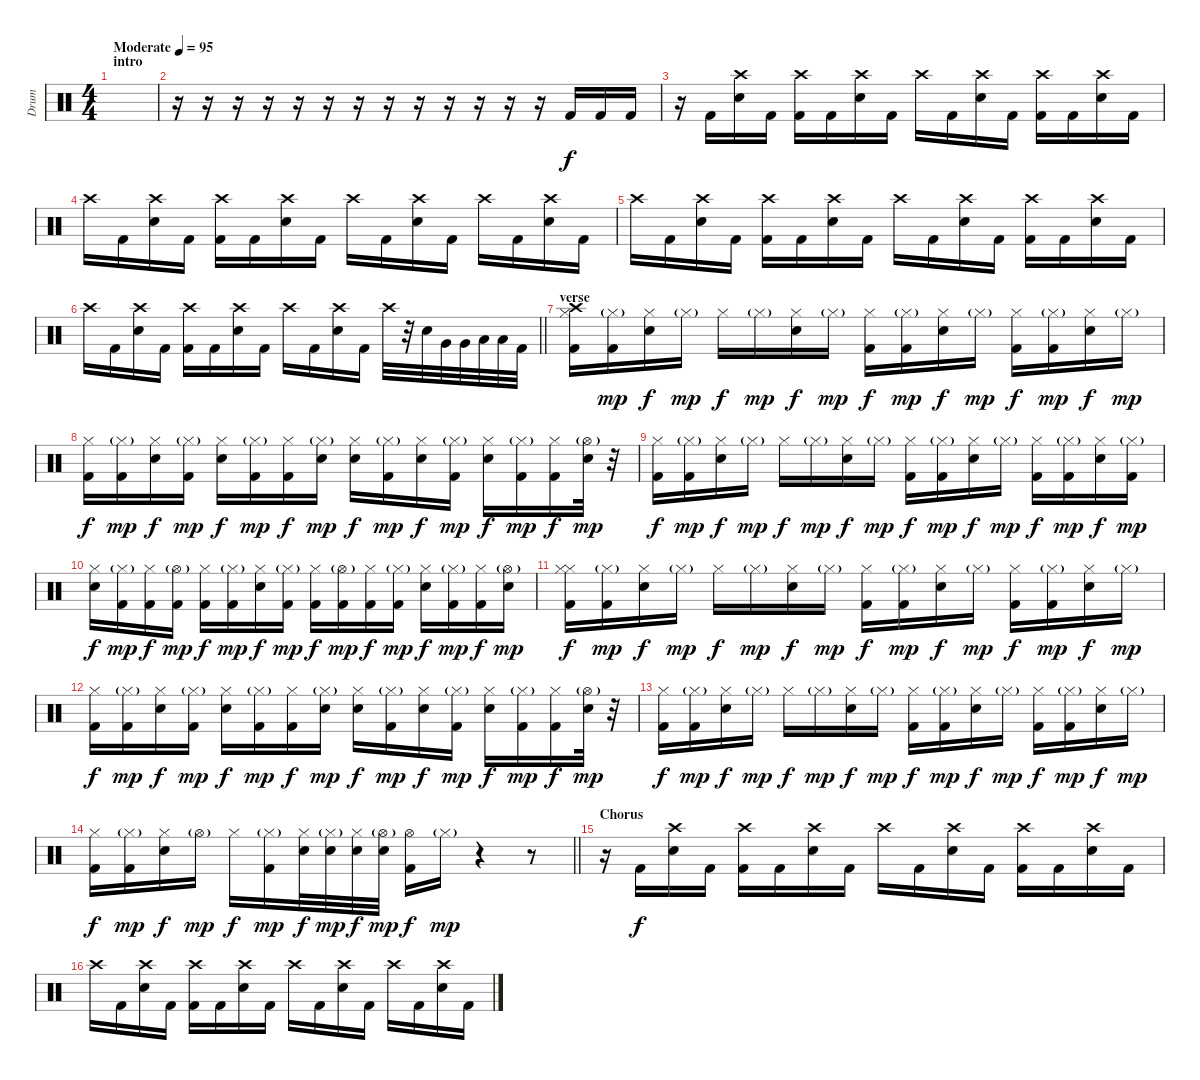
\track ("Drum" "Drum") {instrument percussion}
\staff {score}
\articulation defaults
\ts (4 4)
\section ("" "intro")
\tempo (95 "Moderate")
\clef neutral
\ks c
|
r.16 r.16 r.16 r.16 r.16 r.16 r.16 r.16 r.16 r.16 r.16 r.16 r.16 "Kick (hit) 2".16 "Kick (hit) 2".16 "Kick (hit) 2".16 |
r.16 "Kick (hit) 2".16 ("Crash high (hit)" "Electric Snare (hit)").16 "Kick (hit) 2".16 ("Crash high (hit)" "Kick (hit) 2").16 "Kick (hit) 2".16 ("Crash high (hit)" "Electric Snare (hit)").16 "Kick (hit) 2".16 "Crash high (hit)".16 "Kick (hit) 2".16 ("Crash high (hit)" "Electric Snare (hit)").16 "Kick (hit) 2".16 ("Crash high (hit)" "Kick (hit) 2").16 "Kick (hit) 2".16 ("Crash high (hit)" "Electric Snare (hit)").16 "Kick (hit) 2".16 |
"Crash high (hit)".16 "Kick (hit) 2".16 ("Crash high (hit)" "Electric Snare (hit)").16 "Kick (hit) 2".16 ("Crash high (hit)" "Kick (hit) 2").16 "Kick (hit) 2".16 ("Crash high (hit)" "Electric Snare (hit)").16 "Kick (hit) 2".16 "Crash high (hit)".16 "Kick (hit) 2".16 ("Crash high (hit)" "Electric Snare (hit)").16 "Kick (hit) 2".16 "Crash high (hit)".16 "Kick (hit) 2".16 ("Crash high (hit)" "Electric Snare (hit)").16 "Kick (hit) 2".16 |
"Crash high (hit)".16 "Kick (hit) 2".16 ("Crash high (hit)" "Electric Snare (hit)").16 "Kick (hit) 2".16 ("Crash high (hit)" "Kick (hit) 2").16 "Kick (hit) 2".16 ("Crash high (hit)" "Electric Snare (hit)").16 "Kick (hit) 2".16 "Crash high (hit)".16 "Kick (hit) 2".16 ("Crash high (hit)" "Electric Snare (hit)").16 "Kick (hit) 2".16 ("Crash high (hit)" "Kick (hit) 2").16 "Kick (hit) 2".16 ("Crash high (hit)" "Electric Snare (hit)").16 "Kick (hit) 2".16 |
\barLineRight lightlight "Crash high (hit)".16 "Kick (hit) 2".16
("Crash high (hit)" "Electric Snare (hit)").16 "Kick (hit) 2".16 ("Crash high (hit)" "Kick (hit) 2").16 "Kick (hit) 2".16 ("Crash high (hit)" "Electric Snare (hit)").16 "Kick (hit) 2".16 "Crash high (hit)".16 "Kick (hit) 2".16 ("Crash high (hit)" "Electric Snare (hit)").16 "Kick (hit) 2".16 "Crash high (hit)".32 r.32 "Electric Snare (hit)".32 "Very Low Tom (hit)".32 "Very Low Tom (hit)".32 "Low Floor Tom (hit)".32 "Low Floor Tom (hit)".32 "Kick (hit) 2".32 |
\section ("" "verse")
("Crash high (hit)" "Hi-Hat (closed)" "Kick (hit) 2").16 ("Hi-Hat (closed)"{g} "Kick (hit) 2").16{dy mp} ("Hi-Hat (closed)" "Electric Snare (hit)").16{dy f} "Hi-Hat (closed)"{g}.16{dy mp} "Hi-Hat (closed)".16{dy f} "Hi-Hat (closed)"{g}.16{dy mp} ("Hi-Hat (closed)" "Electric Snare (hit)").16{dy f} "Hi-Hat (closed)"{g}.16{dy mp} ("Hi-Hat (closed)" "Kick (hit) 2").16{dy f} ("Hi-Hat (closed)"{g} "Kick (hit) 2").16{dy mp} ("Hi-Hat (closed)" "Electric Snare (hit)").16{dy f} "Hi-Hat (closed)"{g}.16{dy mp} ("Hi-Hat (closed)" "Kick (hit) 2").16{dy f} ("Hi-Hat (closed)"{g} "Kick (hit) 2").16{dy mp} ("Hi-Hat (closed)" "Electric Snare (hit)").16{dy f} "Hi-Hat (closed)"{g}.16{dy mp} |
("Hi-Hat (closed)" "Kick (hit) 2").16{dy f} ("Hi-Hat (closed)"{g} "Kick (hit) 2").16{dy mp} ("Hi-Hat (closed)" "Electric Snare (hit)").16{dy f} ("Hi-Hat (closed)"{g} "Kick (hit) 2").16{dy mp} ("Hi-Hat (closed)" "Electric Snare (hit)").16{dy f} ("Hi-Hat (closed)"{g} "Kick (hit) 2").16{dy mp} ("Hi-Hat (closed)" "Kick (hit) 2").16{dy f} ("Hi-Hat (closed)"{g} "Electric Snare (hit)").16{dy mp} ("Hi-Hat (closed)" "Electric Snare (hit)").16{dy f} ("Hi-Hat (closed)"{g} "Kick (hit) 2").16{dy mp} ("Hi-Hat (closed)" "Electric Snare (hit)").16{dy f} ("Hi-Hat (closed)"{g} "Kick (hit) 2").16{dy mp} ("Hi-Hat (closed)" "Electric Snare (hit)").16{dy f} ("Hi-Hat (closed)"{g} "Kick (hit) 2").16{dy mp} ("Hi-Hat (closed)" "Kick (hit) 2").16{dy f} ("Hi-Hat (open)"{g} "Electric Snare (hit)").32{dy mp} r.32 |
("Hi-Hat (closed)" "Kick (hit) 2").16{dy f} ("Hi-Hat (closed)"{g} "Kick (hit) 2").16{dy mp} ("Hi-Hat (closed)" "Electric Snare (hit)").16{dy f} "Hi-Hat (closed)"{g}.16{dy mp} "Hi-Hat (closed)".16{dy f} "Hi-Hat (closed)"{g}.16{dy mp} ("Hi-Hat (closed)" "Electric Snare (hit)").16{dy f} "Hi-Hat (closed)"{g}.16{dy mp} ("Hi-Hat (closed)" "Kick (hit) 2").16{dy f} ("Hi-Hat (closed)"{g} "Kick (hit) 2").16{dy mp} ("Hi-Hat (closed)" "Electric Snare (hit)").16{dy f} "Hi-Hat (closed)"{g}.16{dy mp} ("Hi-Hat (closed)" "Kick (hit) 2").16{dy f} ("Hi-Hat (closed)"{g} "Kick (hit) 2").16{dy mp} ("Hi-Hat (closed)" "Electric Snare (hit)").16{dy f} ("Hi-Hat (closed)"{g} "Kick (hit) 2").16{dy mp} |
("Hi-Hat (closed)" "Electric Snare (hit)").16{dy f} ("Hi-Hat (closed)"{g} "Kick (hit) 2").16{dy mp} ("Hi-Hat (closed)" "Kick (hit) 2").16{dy f} ("Hi-Hat (open)"{g} "Kick (hit) 2").16{dy mp} ("Hi-Hat (closed)" "Kick (hit) 2").16{dy f} ("Hi-Hat (closed)"{g} "Kick (hit) 2").16{dy mp} ("Hi-Hat (closed)" "Electric Snare (hit)").16{dy f} ("Hi-Hat (closed)"{g} "Kick (hit) 2").16{dy mp} ("Hi-Hat (closed)" "Kick (hit) 2").16{dy f} ("Hi-Hat (open)"{g} "Kick (hit) 2").16{dy mp} ("Hi-Hat (closed)" "Kick (hit) 2").16{dy f} ("Hi-Hat (closed)"{g} "Kick (hit) 2").16{dy mp} ("Hi-Hat (closed)" "Electric Snare (hit)").16{dy f} ("Hi-Hat (closed)"{g} "Kick (hit) 2").16{dy mp} ("Hi-Hat (closed)" "Kick (hit) 2").16{dy f} ("Hi-Hat (open)"{g} "Electric Snare (hit)").16{dy mp} |
("Hi-Hat (closed)" "Hi-Hat (closed)" "Kick (hit) 2").16{dy f} ("Hi-Hat (closed)"{g} "Kick (hit) 2").16{dy mp} ("Hi-Hat (closed)" "Electric Snare (hit)").16{dy f} "Hi-Hat (closed)"{g}.16{dy mp} "Hi-Hat (closed)".16{dy f} "Hi-Hat (closed)"{g}.16{dy mp} ("Hi-Hat (closed)" "Electric Snare (hit)").16{dy f} "Hi-Hat (closed)"{g}.16{dy mp} ("Hi-Hat (closed)" "Kick (hit) 2").16{dy f} ("Hi-Hat (closed)"{g} "Kick (hit) 2").16{dy mp} ("Hi-Hat (closed)" "Electric Snare (hit)").16{dy f} "Hi-Hat (closed)"{g}.16{dy mp} ("Hi-Hat (closed)" "Kick (hit) 2").16{dy f} ("Hi-Hat (closed)"{g} "Kick (hit) 2").16{dy mp} ("Hi-Hat (closed)" "Electric Snare (hit)").16{dy f} "Hi-Hat (closed)"{g}.16{dy mp} |
("Hi-Hat (closed)" "Kick (hit) 2").16{dy f} ("Hi-Hat (closed)"{g} "Kick (hit) 2").16{dy mp} ("Hi-Hat (closed)" "Electric Snare (hit)").16{dy f} ("Hi-Hat (closed)"{g} "Kick (hit) 2").16{dy mp} ("Hi-Hat (closed)" "Electric Snare (hit)").16{dy f} ("Hi-Hat (closed)"{g} "Kick (hit) 2").16{dy mp} ("Hi-Hat (closed)" "Kick (hit) 2").16{dy f} ("Hi-Hat (closed)"{g} "Electric Snare (hit)").16{dy mp} ("Hi-Hat (closed)" "Electric Snare (hit)").16{dy f} ("Hi-Hat (closed)"{g} "Kick (hit) 2").16{dy mp} ("Hi-Hat (closed)" "Electric Snare (hit)").16{dy f} ("Hi-Hat (closed)"{g} "Kick (hit) 2").16{dy mp} ("Hi-Hat (closed)" "Electric Snare (hit)").16{dy f} ("Hi-Hat (closed)"{g} "Kick (hit) 2").16{dy mp} ("Hi-Hat (closed)" "Kick (hit) 2").16{dy f} ("Hi-Hat (open)"{g} "Electric Snare (hit)").32{dy mp} r.32 |
("Hi-Hat (closed)" "Kick (hit) 2").16{dy f} ("Hi-Hat (closed)"{g} "Kick (hit) 2").16{dy mp} ("Hi-Hat (closed)" "Electric Snare (hit)").16{dy f} "Hi-Hat (closed)"{g}.16{dy mp} "Hi-Hat (closed)".16{dy f} "Hi-Hat (closed)"{g}.16{dy mp} ("Hi-Hat (closed)" "Electric Snare (hit)").16{dy f} "Hi-Hat (closed)"{g}.16{dy mp} ("Hi-Hat (closed)" "Kick (hit) 2").16{dy f} ("Hi-Hat (closed)"{g} "Kick (hit) 2").16{dy mp} ("Hi-Hat (closed)" "Electric Snare (hit)").16{dy f} "Hi-Hat (closed)"{g}.16{dy mp} ("Hi-Hat (closed)" "Kick (hit) 2").16{dy f} ("Hi-Hat (closed)"{g} "Kick (hit) 2").16{dy mp} ("Hi-Hat (closed)" "Electric Snare (hit)").16{dy f} "Hi-Hat (closed)"{g}.16{dy mp} |
\barLineRight lightlight
("Hi-Hat (closed)" "Kick (hit) 2").16{dy f} ("Hi-Hat (closed)"{g} "Kick (hit) 2").16{dy mp} ("Hi-Hat (closed)" "Electric Snare (hit)").16{dy f} "Hi-Hat (open)"{g}.16{dy mp} "Hi-Hat (closed)".16{dy f} ("Hi-Hat (closed)"{g} "Kick (hit) 2").16{dy mp} ("Hi-Hat (closed)" "Electric Snare (hit)").32{dy f} ("Hi-Hat (closed)"{g} "Electric Snare (hit)").32{dy mp} ("Hi-Hat (closed)" "Electric Snare (hit)").32{dy f} ("Hi-Hat (open)"{g} "Electric Snare (hit)").32{dy mp} ("Hi-Hat (open)" "Kick (hit) 2").16{dy f} "Hi-Hat (closed)"{g}.16{dy mp} r.4 r.8 |
\section ("" "Chorus")
r.16 "Kick (hit) 2".16{dy f} ("Crash high (hit)" "Electric Snare (hit)").16 "Kick (hit) 2".16 ("Crash high (hit)" "Kick (hit) 2").16 "Kick (hit) 2".16 ("Crash high (hit)" "Electric Snare (hit)").16 "Kick (hit) 2".16 "Crash high (hit)".16 "Kick (hit) 2".16 ("Crash high (hit)" "Electric Snare (hit)").16 "Kick (hit) 2".16 ("Crash high (hit)" "Kick (hit) 2").16 "Kick (hit) 2".16 ("Crash high (hit)" "Electric Snare (hit)").16 "Kick (hit) 2".16 |
"Crash high (hit)".16 "Kick (hit) 2".16 ("Crash high (hit)" "Electric Snare (hit)").16 "Kick (hit) 2".16 ("Crash high (hit)" "Kick (hit) 2").16 "Kick (hit) 2".16 ("Crash high (hit)" "Electric Snare (hit)").16 "Kick (hit) 2".16 "Crash high (hit)".16 "Kick (hit) 2".16 ("Crash high (hit)" "Electric Snare (hit)").16 "Kick (hit) 2".16 "Crash high (hit)".16 "Kick (hit) 2".16 ("Crash high (hit)" "Electric Snare (hit)").16 "Kick (hit) 2".16
